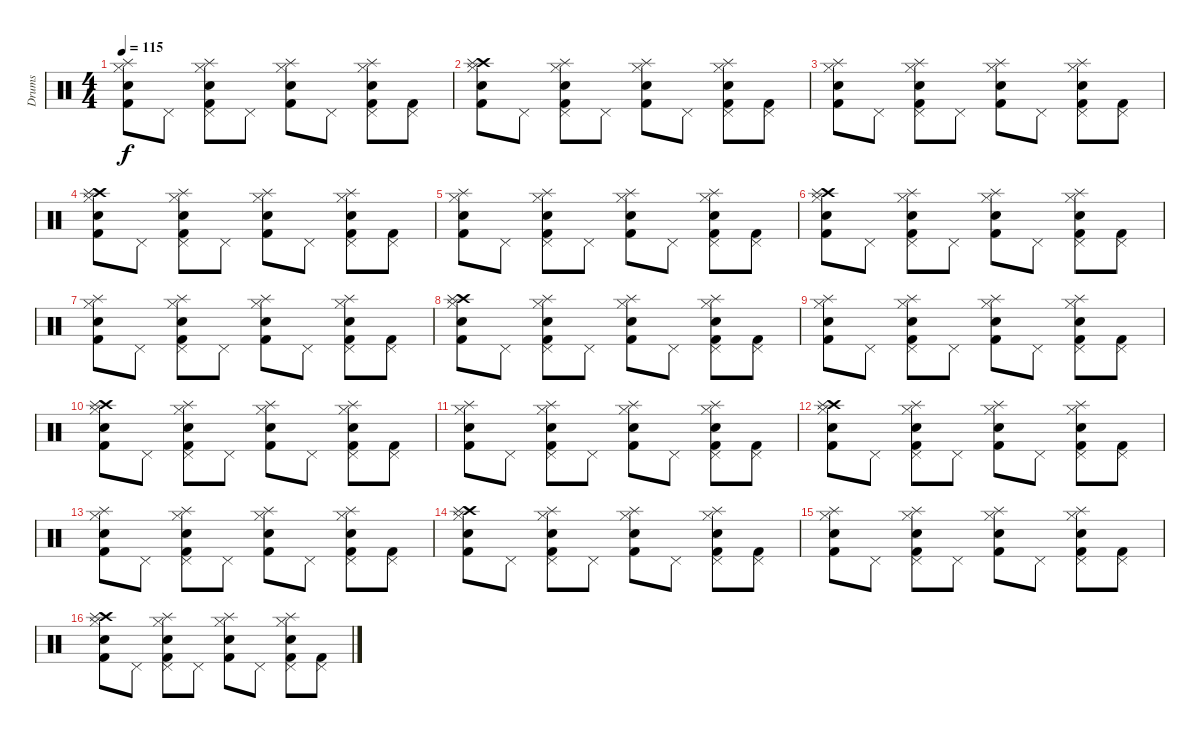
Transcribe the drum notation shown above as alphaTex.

\track ("Drums" "Drums") {instrument percussion}
\staff {score}
\articulation defaults
\ts (4 4)
\tempo 115
\clef neutral
\ks c
("Hi-Hat (closed)" "Snare (hit) 2" "Splash (hit)" "Kick (hit) 2").8{dy f} "Pedal Hi-Hat (hit)".8 ("Hi-Hat (closed)" "Pedal Hi-Hat (hit)" "Electric Snare (hit)" "Splash (hit)" "Kick (hit) 2").8 "Pedal Hi-Hat (hit)".8 ("Hi-Hat (closed)" "Snare (hit) 2" "Splash (hit)" "Kick (hit) 2").8 "Pedal Hi-Hat (hit)".8 ("Hi-Hat (closed)" "Pedal Hi-Hat (hit)" "Electric Snare (hit)" "Splash (hit)" "Kick (hit) 2").8 ("Pedal Hi-Hat (hit)" "Kick (hit) 2").8 |
("Hi-Hat (closed)" "Crash high (hit)" "Snare (hit) 2" "Splash (hit)" "Kick (hit) 2").8 "Pedal Hi-Hat (hit)".8 ("Hi-Hat (closed)" "Pedal Hi-Hat (hit)" "Electric Snare (hit)" "Splash (hit)" "Kick (hit) 2").8 "Pedal Hi-Hat (hit)".8 ("Hi-Hat (closed)" "Snare (hit) 2" "Splash (hit)" "Kick (hit) 2").8 "Pedal Hi-Hat (hit)".8 ("Hi-Hat (closed)" "Pedal Hi-Hat (hit)" "Electric Snare (hit)" "Splash (hit)" "Kick (hit) 2").8 ("Pedal Hi-Hat (hit)" "Kick (hit) 2").8 |
("Hi-Hat (closed)" "Snare (hit) 2" "Splash (hit)" "Kick (hit) 2").8 "Pedal Hi-Hat (hit)".8 ("Hi-Hat (closed)" "Pedal Hi-Hat (hit)" "Electric Snare (hit)" "Splash (hit)" "Kick (hit) 2").8 "Pedal Hi-Hat (hit)".8 ("Hi-Hat (closed)" "Snare (hit) 2" "Splash (hit)" "Kick (hit) 2").8 "Pedal Hi-Hat (hit)".8 ("Hi-Hat (closed)" "Pedal Hi-Hat (hit)" "Electric Snare (hit)" "Splash (hit)" "Kick (hit) 2").8 ("Pedal Hi-Hat (hit)" "Kick (hit) 2").8 |
("Hi-Hat (closed)" "Crash high (hit)" "Snare (hit) 2" "Splash (hit)" "Kick (hit) 2").8 "Pedal Hi-Hat (hit)".8 ("Hi-Hat (closed)" "Pedal Hi-Hat (hit)" "Electric Snare (hit)" "Splash (hit)" "Kick (hit) 2").8 "Pedal Hi-Hat (hit)".8 ("Hi-Hat (closed)" "Snare (hit) 2" "Splash (hit)" "Kick (hit) 2").8 "Pedal Hi-Hat (hit)".8 ("Hi-Hat (closed)" "Pedal Hi-Hat (hit)" "Electric Snare (hit)" "Splash (hit)" "Kick (hit) 2").8 ("Pedal Hi-Hat (hit)" "Kick (hit) 2").8 |
("Hi-Hat (closed)" "Snare (hit) 2" "Splash (hit)" "Kick (hit) 2").8 "Pedal Hi-Hat (hit)".8 ("Hi-Hat (closed)" "Pedal Hi-Hat (hit)" "Electric Snare (hit)" "Splash (hit)" "Kick (hit) 2").8 "Pedal Hi-Hat (hit)".8 ("Hi-Hat (closed)" "Snare (hit) 2" "Splash (hit)" "Kick (hit) 2").8 "Pedal Hi-Hat (hit)".8 ("Hi-Hat (closed)" "Pedal Hi-Hat (hit)" "Electric Snare (hit)" "Splash (hit)" "Kick (hit) 2").8 ("Pedal Hi-Hat (hit)" "Kick (hit) 2").8 |
("Hi-Hat (closed)" "Crash high (hit)" "Snare (hit) 2" "Splash (hit)" "Kick (hit) 2").8 "Pedal Hi-Hat (hit)".8 ("Hi-Hat (closed)" "Pedal Hi-Hat (hit)" "Electric Snare (hit)" "Splash (hit)" "Kick (hit) 2").8 "Pedal Hi-Hat (hit)".8 ("Hi-Hat (closed)" "Snare (hit) 2" "Splash (hit)" "Kick (hit) 2").8 "Pedal Hi-Hat (hit)".8 ("Hi-Hat (closed)" "Pedal Hi-Hat (hit)" "Electric Snare (hit)" "Splash (hit)" "Kick (hit) 2").8 ("Pedal Hi-Hat (hit)" "Kick (hit) 2").8 |
("Hi-Hat (closed)" "Snare (hit) 2" "Splash (hit)" "Kick (hit) 2").8 "Pedal Hi-Hat (hit)".8 ("Hi-Hat (closed)" "Pedal Hi-Hat (hit)" "Electric Snare (hit)" "Splash (hit)" "Kick (hit) 2").8 "Pedal Hi-Hat (hit)".8 ("Hi-Hat (closed)" "Snare (hit) 2" "Splash (hit)" "Kick (hit) 2").8 "Pedal Hi-Hat (hit)".8 ("Hi-Hat (closed)" "Pedal Hi-Hat (hit)" "Electric Snare (hit)" "Splash (hit)" "Kick (hit) 2").8 ("Pedal Hi-Hat (hit)" "Kick (hit) 2").8 |
("Hi-Hat (closed)" "Crash high (hit)" "Snare (hit) 2" "Splash (hit)" "Kick (hit) 2").8 "Pedal Hi-Hat (hit)".8 ("Hi-Hat (closed)" "Pedal Hi-Hat (hit)" "Electric Snare (hit)" "Splash (hit)" "Kick (hit) 2").8 "Pedal Hi-Hat (hit)".8 ("Hi-Hat (closed)" "Snare (hit) 2" "Splash (hit)" "Kick (hit) 2").8 "Pedal Hi-Hat (hit)".8 ("Hi-Hat (closed)" "Pedal Hi-Hat (hit)" "Electric Snare (hit)" "Splash (hit)" "Kick (hit) 2").8 ("Pedal Hi-Hat (hit)" "Kick (hit) 2").8 |
("Hi-Hat (closed)" "Snare (hit) 2" "Splash (hit)" "Kick (hit) 2").8 "Pedal Hi-Hat (hit)".8 ("Hi-Hat (closed)" "Pedal Hi-Hat (hit)" "Electric Snare (hit)" "Splash (hit)" "Kick (hit) 2").8 "Pedal Hi-Hat (hit)".8 ("Hi-Hat (closed)" "Snare (hit) 2" "Splash (hit)" "Kick (hit) 2").8 "Pedal Hi-Hat (hit)".8 ("Hi-Hat (closed)" "Pedal Hi-Hat (hit)" "Electric Snare (hit)" "Splash (hit)" "Kick (hit) 2").8 ("Pedal Hi-Hat (hit)" "Kick (hit) 2").8 |
("Hi-Hat (closed)" "Crash high (hit)" "Snare (hit) 2" "Splash (hit)" "Kick (hit) 2").8 "Pedal Hi-Hat (hit)".8 ("Hi-Hat (closed)" "Pedal Hi-Hat (hit)" "Electric Snare (hit)" "Splash (hit)" "Kick (hit) 2").8 "Pedal Hi-Hat (hit)".8 ("Hi-Hat (closed)" "Snare (hit) 2" "Splash (hit)" "Kick (hit) 2").8 "Pedal Hi-Hat (hit)".8 ("Hi-Hat (closed)" "Pedal Hi-Hat (hit)" "Electric Snare (hit)" "Splash (hit)" "Kick (hit) 2").8 ("Pedal Hi-Hat (hit)" "Kick (hit) 2").8 |
("Hi-Hat (closed)" "Snare (hit) 2" "Splash (hit)" "Kick (hit) 2").8 "Pedal Hi-Hat (hit)".8 ("Hi-Hat (closed)" "Pedal Hi-Hat (hit)" "Electric Snare (hit)" "Splash (hit)" "Kick (hit) 2").8 "Pedal Hi-Hat (hit)".8 ("Hi-Hat (closed)" "Snare (hit) 2" "Splash (hit)" "Kick (hit) 2").8 "Pedal Hi-Hat (hit)".8 ("Hi-Hat (closed)" "Pedal Hi-Hat (hit)" "Electric Snare (hit)" "Splash (hit)" "Kick (hit) 2").8 ("Pedal Hi-Hat (hit)" "Kick (hit) 2").8 |
("Hi-Hat (closed)" "Crash high (hit)" "Snare (hit) 2" "Splash (hit)" "Kick (hit) 2").8 "Pedal Hi-Hat (hit)".8 ("Hi-Hat (closed)" "Pedal Hi-Hat (hit)" "Electric Snare (hit)" "Splash (hit)" "Kick (hit) 2").8 "Pedal Hi-Hat (hit)".8 ("Hi-Hat (closed)" "Snare (hit) 2" "Splash (hit)" "Kick (hit) 2").8 "Pedal Hi-Hat (hit)".8 ("Hi-Hat (closed)" "Pedal Hi-Hat (hit)" "Electric Snare (hit)" "Splash (hit)" "Kick (hit) 2").8 ("Pedal Hi-Hat (hit)" "Kick (hit) 2").8 |
("Hi-Hat (closed)" "Snare (hit) 2" "Splash (hit)" "Kick (hit) 2").8 "Pedal Hi-Hat (hit)".8 ("Hi-Hat (closed)" "Pedal Hi-Hat (hit)" "Electric Snare (hit)" "Splash (hit)" "Kick (hit) 2").8 "Pedal Hi-Hat (hit)".8 ("Hi-Hat (closed)" "Snare (hit) 2" "Splash (hit)" "Kick (hit) 2").8 "Pedal Hi-Hat (hit)".8 ("Hi-Hat (closed)" "Pedal Hi-Hat (hit)" "Electric Snare (hit)" "Splash (hit)" "Kick (hit) 2").8 ("Pedal Hi-Hat (hit)" "Kick (hit) 2").8 |
("Hi-Hat (closed)" "Crash high (hit)" "Snare (hit) 2" "Splash (hit)" "Kick (hit) 2").8 "Pedal Hi-Hat (hit)".8 ("Hi-Hat (closed)" "Pedal Hi-Hat (hit)" "Electric Snare (hit)" "Splash (hit)" "Kick (hit) 2").8 "Pedal Hi-Hat (hit)".8 ("Hi-Hat (closed)" "Snare (hit) 2" "Splash (hit)" "Kick (hit) 2").8 "Pedal Hi-Hat (hit)".8 ("Hi-Hat (closed)" "Pedal Hi-Hat (hit)" "Electric Snare (hit)" "Splash (hit)" "Kick (hit) 2").8 ("Pedal Hi-Hat (hit)" "Kick (hit) 2").8 |
("Hi-Hat (closed)" "Snare (hit) 2" "Splash (hit)" "Kick (hit) 2").8 "Pedal Hi-Hat (hit)".8 ("Hi-Hat (closed)" "Pedal Hi-Hat (hit)" "Electric Snare (hit)" "Splash (hit)" "Kick (hit) 2").8 "Pedal Hi-Hat (hit)".8 ("Hi-Hat (closed)" "Snare (hit) 2" "Splash (hit)" "Kick (hit) 2").8 "Pedal Hi-Hat (hit)".8 ("Hi-Hat (closed)" "Pedal Hi-Hat (hit)" "Electric Snare (hit)" "Splash (hit)" "Kick (hit) 2").8 ("Pedal Hi-Hat (hit)" "Kick (hit) 2").8 |
("Hi-Hat (closed)" "Crash high (hit)" "Snare (hit) 2" "Splash (hit)" "Kick (hit) 2").8 "Pedal Hi-Hat (hit)".8 ("Hi-Hat (closed)" "Pedal Hi-Hat (hit)" "Electric Snare (hit)" "Splash (hit)" "Kick (hit) 2").8 "Pedal Hi-Hat (hit)".8 ("Hi-Hat (closed)" "Snare (hit) 2" "Splash (hit)" "Kick (hit) 2").8 "Pedal Hi-Hat (hit)".8 ("Hi-Hat (closed)" "Pedal Hi-Hat (hit)" "Electric Snare (hit)" "Splash (hit)" "Kick (hit) 2").8 ("Pedal Hi-Hat (hit)" "Kick (hit) 2").8
